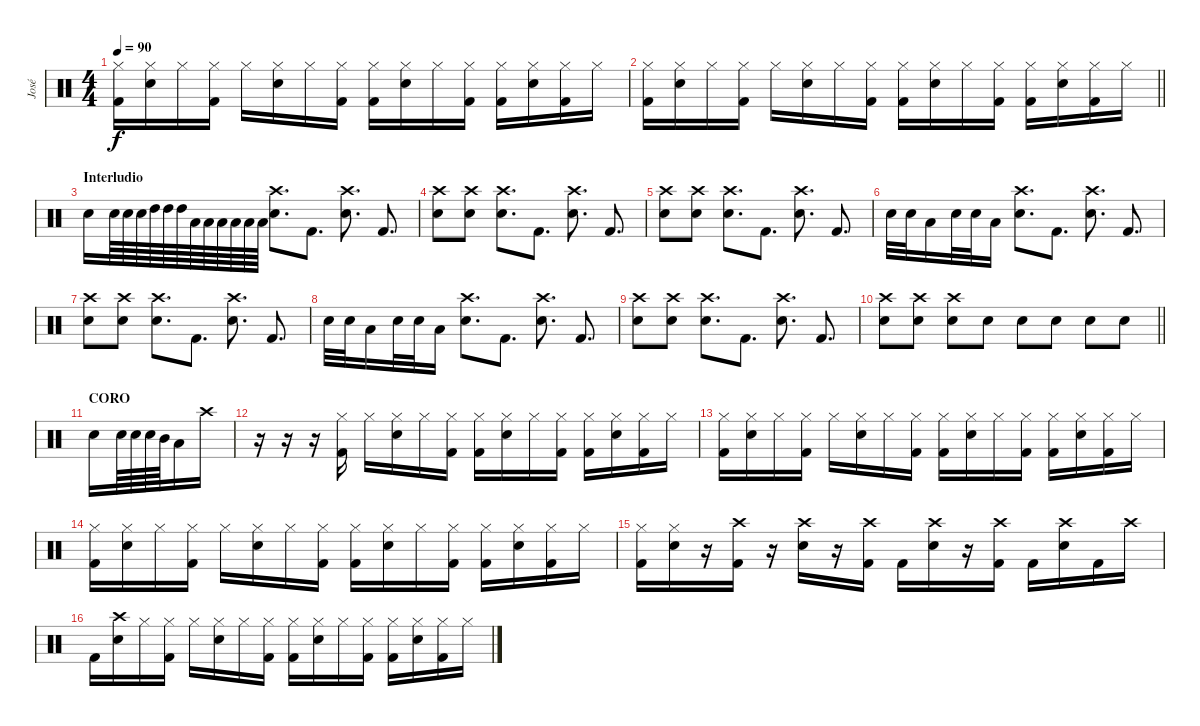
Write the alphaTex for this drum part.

\track ("José" "José") {instrument percussion}
\staff {score}
\articulation defaults
\ts (4 4)
\tempo 90
\clef neutral
\ks c
("Hi-Hat (closed)" "Kick (hit) 2").16{dy f} ("Hi-Hat (closed)" "Electric Snare (hit)").16 "Hi-Hat (closed)".16 ("Hi-Hat (closed)" "Kick (hit) 2").16 "Hi-Hat (closed)".16 ("Hi-Hat (closed)" "Electric Snare (hit)").16 "Hi-Hat (closed)".16 ("Hi-Hat (closed)" "Kick (hit) 2").16 ("Hi-Hat (closed)" "Kick (hit) 2").16 ("Hi-Hat (closed)" "Electric Snare (hit)").16 "Hi-Hat (closed)".16 ("Hi-Hat (closed)" "Kick (hit) 2").16 ("Hi-Hat (closed)" "Kick (hit) 2").16 ("Hi-Hat (closed)" "Electric Snare (hit)").16 ("Hi-Hat (closed)" "Kick (hit) 2").16 "Hi-Hat (closed)".16 |
\barLineRight lightlight
("Hi-Hat (closed)" "Kick (hit) 2").16 ("Hi-Hat (closed)" "Electric Snare (hit)").16 "Hi-Hat (closed)".16 ("Hi-Hat (closed)" "Kick (hit) 2").16 "Hi-Hat (closed)".16 ("Hi-Hat (closed)" "Electric Snare (hit)").16 "Hi-Hat (closed)".16 ("Hi-Hat (closed)" "Kick (hit) 2").16 ("Hi-Hat (closed)" "Kick (hit) 2").16 ("Hi-Hat (closed)" "Electric Snare (hit)").16 "Hi-Hat (closed)".16 ("Hi-Hat (closed)" "Kick (hit) 2").16 ("Hi-Hat (closed)" "Kick (hit) 2").16 ("Hi-Hat (closed)" "Electric Snare (hit)").16 ("Hi-Hat (closed)" "Kick (hit) 2").16 "Hi-Hat (closed)".16 |
\section ("" "Interludio")
"Electric Snare (hit)".16 "Electric Snare (hit)".64 "Electric Snare (hit)".64 "Electric Snare (hit)".64 "High Tom (hit)".64 "High Tom (hit)".64 "High Tom (hit)".64 "Low Tom (hit)".64 "Low Tom (hit)".64 "Low Tom (hit)".64 "Low Floor Tom (hit)".64 "Low Floor Tom (hit)".64 "Low Floor Tom (hit)".64 ("Crash high (hit)" "Electric Snare (hit)").8{d} "Kick (hit) 2".8{d} ("Crash high (hit)" "Electric Snare (hit)").8{d} "Kick (hit) 2".8{d} |
("Crash high (hit)" "Electric Snare (hit)").8 ("Crash high (hit)" "Electric Snare (hit)").8 ("Crash high (hit)" "Electric Snare (hit)").8{d} "Kick (hit) 2".8{d} ("Crash high (hit)" "Electric Snare (hit)").8{d} "Kick (hit) 2".8{d} |
("Crash high (hit)" "Electric Snare (hit)").8 ("Crash high (hit)" "Electric Snare (hit)").8 ("Crash high (hit)" "Electric Snare (hit)").8{d} "Kick (hit) 2".8{d} ("Crash high (hit)" "Electric Snare (hit)").8{d} "Kick (hit) 2".8{d} |
"Electric Snare (hit)".32 "Electric Snare (hit)".32 "Low Tom (hit)".16 "Electric Snare (hit)".32 "Electric Snare (hit)".32 "Low Tom (hit)".16 ("Crash high (hit)" "Electric Snare (hit)").8{d} "Kick (hit) 2".8{d} ("Crash high (hit)" "Electric Snare (hit)").8{d} "Kick (hit) 2".8{d} |
("Crash high (hit)" "Electric Snare (hit)").8 ("Crash high (hit)" "Electric Snare (hit)").8 ("Crash high (hit)" "Electric Snare (hit)").8{d} "Kick (hit) 2".8{d} ("Crash high (hit)" "Electric Snare (hit)").8{d} "Kick (hit) 2".8{d} |
"Electric Snare (hit)".32 "Electric Snare (hit)".32 "Low Tom (hit)".16 "Electric Snare (hit)".32 "Electric Snare (hit)".32 "Low Tom (hit)".16 ("Crash high (hit)" "Electric Snare (hit)").8{d} "Kick (hit) 2".8{d} ("Crash high (hit)" "Electric Snare (hit)").8{d} "Kick (hit) 2".8{d} |
("Crash high (hit)" "Electric Snare (hit)").8 ("Crash high (hit)" "Electric Snare (hit)").8 ("Crash high (hit)" "Electric Snare (hit)").8{d} "Kick (hit) 2".8{d} ("Crash high (hit)" "Electric Snare (hit)").8{d} "Kick (hit) 2".8{d} |
\barLineRight lightlight
("Crash high (hit)" "Electric Snare (hit)").8 ("Crash high (hit)" "Electric Snare (hit)").8 ("Crash high (hit)" "Electric Snare (hit)").8 "Electric Snare (hit)".8 "Electric Snare (hit)".8 "Electric Snare (hit)".8 "Electric Snare (hit)".8 "Electric Snare (hit)".8 |
\section ("" "CORO")
"Electric Snare (hit)".16 "Electric Snare (hit)".64 "Electric Snare (hit)".64 "Electric Snare (hit)".64 "Mid Tom (hit)".64 "Low Tom (hit)".16 "Crash high (hit)".16 |
r.16 r.16 r.16 ("Hi-Hat (closed)" "Kick (hit) 2").16 "Hi-Hat (closed)".16 ("Hi-Hat (closed)" "Electric Snare (hit)").16 "Hi-Hat (closed)".16 ("Hi-Hat (closed)" "Kick (hit) 2").16 ("Hi-Hat (closed)" "Kick (hit) 2").16 ("Hi-Hat (closed)" "Electric Snare (hit)").16 "Hi-Hat (closed)".16 ("Hi-Hat (closed)" "Kick (hit) 2").16 ("Hi-Hat (closed)" "Kick (hit) 2").16 ("Hi-Hat (closed)" "Electric Snare (hit)").16 ("Hi-Hat (closed)" "Kick (hit) 2").16 "Hi-Hat (closed)".16 |
("Hi-Hat (closed)" "Kick (hit) 2").16 ("Hi-Hat (closed)" "Electric Snare (hit)").16 "Hi-Hat (closed)".16 ("Hi-Hat (closed)" "Kick (hit) 2").16 "Hi-Hat (closed)".16 ("Hi-Hat (closed)" "Electric Snare (hit)").16 "Hi-Hat (closed)".16 ("Hi-Hat (closed)" "Kick (hit) 2").16 ("Hi-Hat (closed)" "Kick (hit) 2").16 ("Hi-Hat (closed)" "Electric Snare (hit)").16 "Hi-Hat (closed)".16 ("Hi-Hat (closed)" "Kick (hit) 2").16 ("Hi-Hat (closed)" "Kick (hit) 2").16 ("Hi-Hat (closed)" "Electric Snare (hit)").16 ("Hi-Hat (closed)" "Kick (hit) 2").16 "Hi-Hat (closed)".16 |
("Hi-Hat (closed)" "Kick (hit) 2").16 ("Hi-Hat (closed)" "Electric Snare (hit)").16 "Hi-Hat (closed)".16 ("Hi-Hat (closed)" "Kick (hit) 2").16 "Hi-Hat (closed)".16 ("Hi-Hat (closed)" "Electric Snare (hit)").16 "Hi-Hat (closed)".16 ("Hi-Hat (closed)" "Kick (hit) 2").16 ("Hi-Hat (closed)" "Kick (hit) 2").16 ("Hi-Hat (closed)" "Electric Snare (hit)").16 "Hi-Hat (closed)".16 ("Hi-Hat (closed)" "Kick (hit) 2").16 ("Hi-Hat (closed)" "Kick (hit) 2").16 ("Hi-Hat (closed)" "Electric Snare (hit)").16 ("Hi-Hat (closed)" "Kick (hit) 2").16 "Hi-Hat (closed)".16 |
("Hi-Hat (closed)" "Kick (hit) 2").16 ("Hi-Hat (closed)" "Electric Snare (hit)").16 r.16 ("Crash high (hit)" "Kick (hit) 2").16 r.16 ("Crash high (hit)" "Electric Snare (hit)").16 r.16 ("Crash high (hit)" "Kick (hit) 2").16 "Kick (hit) 2".16 ("Crash high (hit)" "Electric Snare (hit)").16 r.16 ("Crash high (hit)" "Kick (hit) 2").16 "Kick (hit) 2".16 ("Crash high (hit)" "Electric Snare (hit)").16 "Kick (hit) 2".16 "Crash high (hit)".16 |
"Kick (hit) 2".16 ("Crash high (hit)" "Electric Snare (hit)").16 "Hi-Hat (closed)".16 ("Hi-Hat (closed)" "Kick (hit) 2").16 "Hi-Hat (closed)".16 ("Hi-Hat (closed)" "Electric Snare (hit)").16 "Hi-Hat (closed)".16 ("Hi-Hat (closed)" "Kick (hit) 2").16 ("Hi-Hat (closed)" "Kick (hit) 2").16 ("Hi-Hat (closed)" "Electric Snare (hit)").16 "Hi-Hat (closed)".16 ("Hi-Hat (closed)" "Kick (hit) 2").16 ("Hi-Hat (closed)" "Kick (hit) 2").16 ("Hi-Hat (closed)" "Electric Snare (hit)").16 ("Hi-Hat (closed)" "Kick (hit) 2").16 "Hi-Hat (closed)".16
